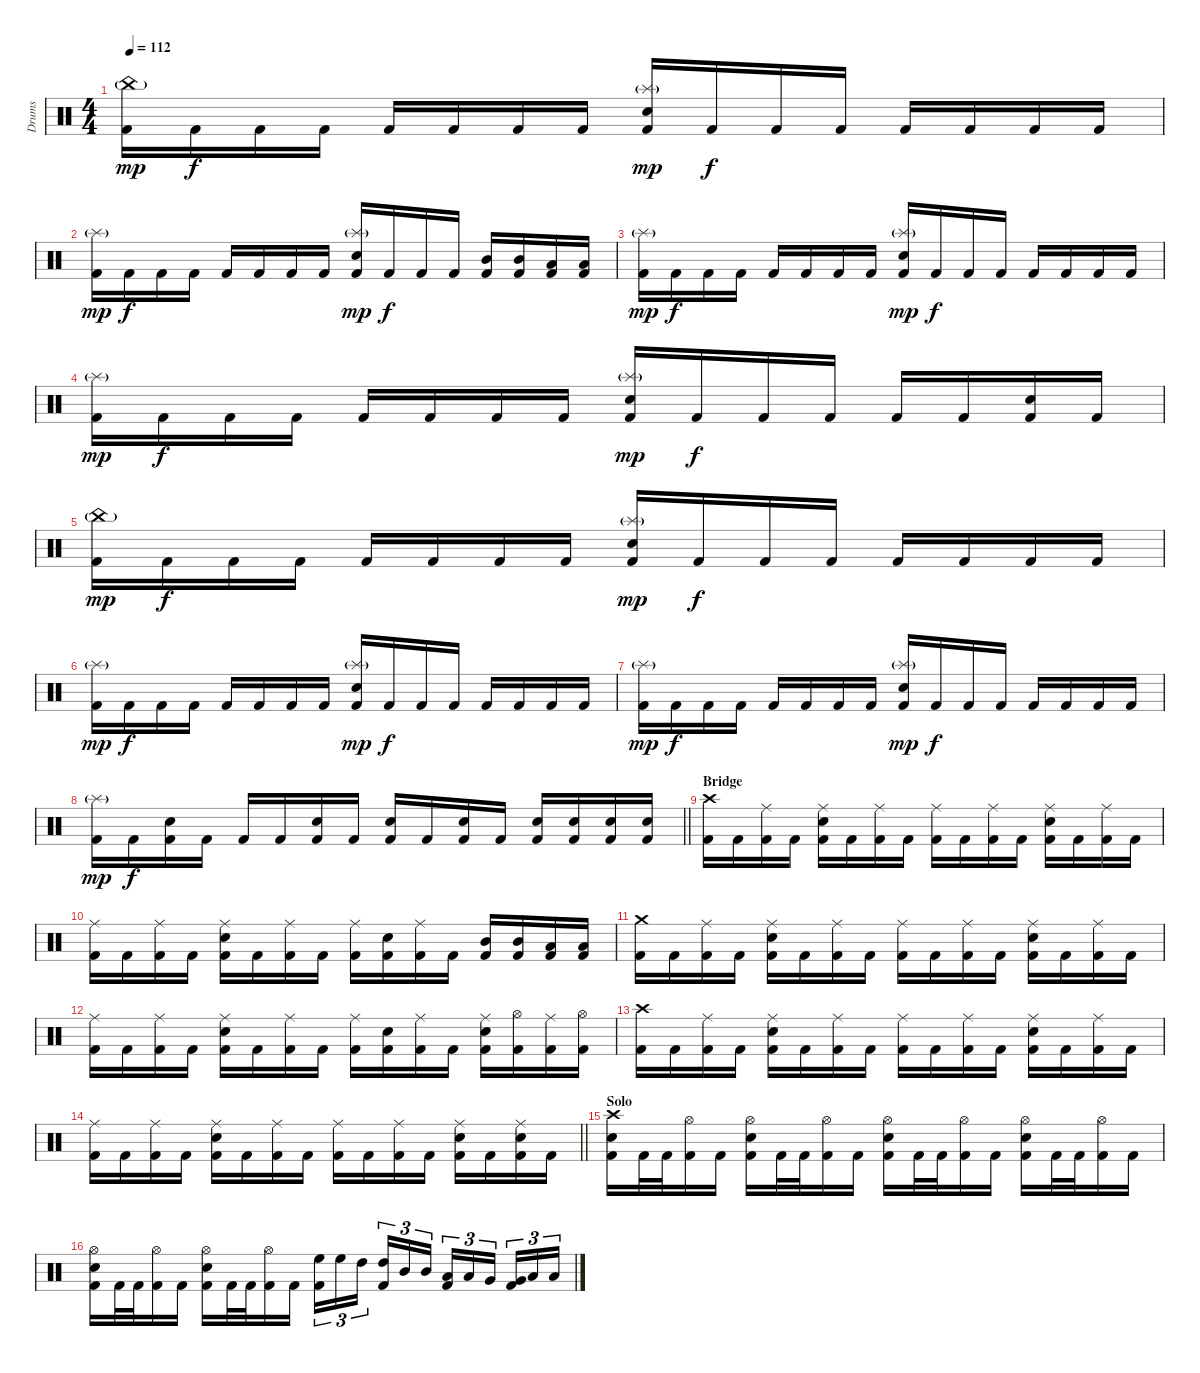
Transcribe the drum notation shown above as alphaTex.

\track ("Drums" "Drums") {instrument percussion}
\staff {score}
\articulation defaults
\ts (4 4)
\tempo 112
\clef neutral
\ks c
("China (hit)"{g} "Kick (hit) 2").16{dy mp} "Kick (hit) 2".16{dy f} "Kick (hit) 2".16 "Kick (hit) 2".16 "Kick (hit) 2".16 "Kick (hit) 2".16 "Kick (hit) 2".16 "Kick (hit) 2".16 ("Splash (hit)"{g} "Electric Snare (hit)" "Kick (hit) 2").16{dy mp} "Kick (hit) 2".16{dy f} "Kick (hit) 2".16 "Kick (hit) 2".16 "Kick (hit) 2".16 "Kick (hit) 2".16 "Kick (hit) 2".16 "Kick (hit) 2".16 |
("Splash (hit)"{g} "Kick (hit) 2").16{dy mp} "Kick (hit) 2".16{dy f} "Kick (hit) 2".16 "Kick (hit) 2".16 "Kick (hit) 2".16 "Kick (hit) 2".16 "Kick (hit) 2".16 "Kick (hit) 2".16 ("Splash (hit)"{g} "Electric Snare (hit)" "Kick (hit) 2").16{dy mp} "Kick (hit) 2".16{dy f} "Kick (hit) 2".16 "Kick (hit) 2".16 ("Mid Tom (hit)" "Kick (hit) 2").16 ("Mid Tom (hit)" "Kick (hit) 2").16 ("Low Tom (hit)" "Kick (hit) 2").16 ("Low Tom (hit)" "Kick (hit) 2").16 |
("Splash (hit)"{g} "Kick (hit) 2").16{dy mp} "Kick (hit) 2".16{dy f} "Kick (hit) 2".16 "Kick (hit) 2".16 "Kick (hit) 2".16 "Kick (hit) 2".16 "Kick (hit) 2".16 "Kick (hit) 2".16 ("Splash (hit)"{g} "Electric Snare (hit)" "Kick (hit) 2").16{dy mp} "Kick (hit) 2".16{dy f} "Kick (hit) 2".16 "Kick (hit) 2".16 "Kick (hit) 2".16 "Kick (hit) 2".16 "Kick (hit) 2".16 "Kick (hit) 2".16 |
("Splash (hit)"{g} "Kick (hit) 2").16{dy mp} "Kick (hit) 2".16{dy f} "Kick (hit) 2".16 "Kick (hit) 2".16 "Kick (hit) 2".16 "Kick (hit) 2".16 "Kick (hit) 2".16 "Kick (hit) 2".16 ("Splash (hit)"{g} "Electric Snare (hit)" "Kick (hit) 2").16{dy mp} "Kick (hit) 2".16{dy f} "Kick (hit) 2".16 "Kick (hit) 2".16 "Kick (hit) 2".16 "Kick (hit) 2".16 ("Electric Snare (hit)" "Kick (hit) 2").16 "Kick (hit) 2".16 |
("China (hit)"{g} "Kick (hit) 2").16{dy mp} "Kick (hit) 2".16{dy f} "Kick (hit) 2".16 "Kick (hit) 2".16 "Kick (hit) 2".16 "Kick (hit) 2".16 "Kick (hit) 2".16 "Kick (hit) 2".16 ("Splash (hit)"{g} "Electric Snare (hit)" "Kick (hit) 2").16{dy mp} "Kick (hit) 2".16{dy f} "Kick (hit) 2".16 "Kick (hit) 2".16 "Kick (hit) 2".16 "Kick (hit) 2".16 "Kick (hit) 2".16 "Kick (hit) 2".16 |
("Splash (hit)"{g} "Kick (hit) 2").16{dy mp} "Kick (hit) 2".16{dy f} "Kick (hit) 2".16 "Kick (hit) 2".16 "Kick (hit) 2".16 "Kick (hit) 2".16 "Kick (hit) 2".16 "Kick (hit) 2".16 ("Splash (hit)"{g} "Electric Snare (hit)" "Kick (hit) 2").16{dy mp} "Kick (hit) 2".16{dy f} "Kick (hit) 2".16 "Kick (hit) 2".16 "Kick (hit) 2".16 "Kick (hit) 2".16 "Kick (hit) 2".16 "Kick (hit) 2".16 |
("Splash (hit)"{g} "Kick (hit) 2").16{dy mp} "Kick (hit) 2".16{dy f} "Kick (hit) 2".16 "Kick (hit) 2".16 "Kick (hit) 2".16 "Kick (hit) 2".16 "Kick (hit) 2".16 "Kick (hit) 2".16 ("Splash (hit)"{g} "Electric Snare (hit)" "Kick (hit) 2").16{dy mp} "Kick (hit) 2".16{dy f} "Kick (hit) 2".16 "Kick (hit) 2".16 "Kick (hit) 2".16 "Kick (hit) 2".16 "Kick (hit) 2".16 "Kick (hit) 2".16 |
\barLineRight lightlight
("Splash (hit)"{g} "Kick (hit) 2").16{dy mp} "Kick (hit) 2".16{dy f} ("Electric Snare (hit)" "Kick (hit) 2").16 "Kick (hit) 2".16 "Kick (hit) 2".16 "Kick (hit) 2".16 ("Electric Snare (hit)" "Kick (hit) 2").16 "Kick (hit) 2".16 ("Electric Snare (hit)" "Kick (hit) 2").16 "Kick (hit) 2".16 ("Electric Snare (hit)" "Kick (hit) 2").16 "Kick (hit) 2".16 ("Electric Snare (hit)" "Kick (hit) 2").16 ("Electric Snare (hit)" "Kick (hit) 2").16 ("Electric Snare (hit)" "Kick (hit) 2").16 ("Electric Snare (hit)" "Kick (hit) 2").16 |
\section ("" "Bridge")
("Crash high (hit)" "Kick (hit) 2").16 "Kick (hit) 2".16 ("Ride (middle)" "Kick (hit) 2").16 "Kick (hit) 2".16 ("Ride (middle)" "Electric Snare (hit)" "Kick (hit) 2").16 "Kick (hit) 2".16 ("Ride (middle)" "Kick (hit) 2").16 "Kick (hit) 2".16 ("Ride (middle)" "Kick (hit) 2").16 "Kick (hit) 2".16 ("Ride (middle)" "Kick (hit) 2").16 "Kick (hit) 2".16 ("Ride (middle)" "Electric Snare (hit)" "Kick (hit) 2").16 "Kick (hit) 2".16 ("Ride (middle)" "Kick (hit) 2").16 "Kick (hit) 2".16 |
("Ride (middle)" "Kick (hit) 2").16 "Kick (hit) 2".16 ("Ride (middle)" "Kick (hit) 2").16 "Kick (hit) 2".16 ("Ride (middle)" "Electric Snare (hit)" "Kick (hit) 2").16 "Kick (hit) 2".16 ("Ride (middle)" "Kick (hit) 2").16 "Kick (hit) 2".16 ("Ride (middle)" "Kick (hit) 2").16 ("Electric Snare (hit)" "Kick (hit) 2").16 ("Ride (middle)" "Kick (hit) 2").16 "Kick (hit) 2".16 ("Mid Tom (hit)" "Kick (hit) 2").16 ("Mid Tom (hit)" "Kick (hit) 2").16 ("Low Tom (hit)" "Kick (hit) 2").16 ("Low Tom (hit)" "Kick (hit) 2").16 |
("Crash medium (hit)" "Kick (hit) 2").16 "Kick (hit) 2".16 ("Ride (middle)" "Kick (hit) 2").16 "Kick (hit) 2".16 ("Ride (middle)" "Electric Snare (hit)" "Kick (hit) 2").16 "Kick (hit) 2".16 ("Ride (middle)" "Kick (hit) 2").16 "Kick (hit) 2".16 ("Ride (middle)" "Kick (hit) 2").16 "Kick (hit) 2".16 ("Ride (middle)" "Kick (hit) 2").16 "Kick (hit) 2".16 ("Ride (middle)" "Electric Snare (hit)" "Kick (hit) 2").16 "Kick (hit) 2".16 ("Ride (middle)" "Kick (hit) 2").16 "Kick (hit) 2".16 |
("Ride (middle)" "Kick (hit) 2").16 "Kick (hit) 2".16 ("Ride (middle)" "Kick (hit) 2").16 "Kick (hit) 2".16 ("Ride (middle)" "Electric Snare (hit)" "Kick (hit) 2").16 "Kick (hit) 2".16 ("Ride (middle)" "Kick (hit) 2").16 "Kick (hit) 2".16 ("Ride (middle)" "Kick (hit) 2").16 ("Electric Snare (hit)" "Kick (hit) 2").16 ("Ride (middle)" "Kick (hit) 2").16 "Kick (hit) 2".16 ("Ride (middle)" "Electric Snare (hit)" "Kick (hit) 2").16 ("Hi-Hat (open)" "Kick (hit) 2").16 ("Ride (middle)" "Kick (hit) 2").16 ("Hi-Hat (open)" "Kick (hit) 2").16 |
("Crash high (hit)" "Kick (hit) 2").16 "Kick (hit) 2".16 ("Ride (middle)" "Kick (hit) 2").16 "Kick (hit) 2".16 ("Ride (middle)" "Electric Snare (hit)" "Kick (hit) 2").16 "Kick (hit) 2".16 ("Ride (middle)" "Kick (hit) 2").16 "Kick (hit) 2".16 ("Ride (middle)" "Kick (hit) 2").16 "Kick (hit) 2".16 ("Ride (middle)" "Kick (hit) 2").16 "Kick (hit) 2".16 ("Ride (middle)" "Electric Snare (hit)" "Kick (hit) 2").16 "Kick (hit) 2".16 ("Ride (middle)" "Kick (hit) 2").16 "Kick (hit) 2".16 |
\barLineRight lightlight
("Ride (middle)" "Kick (hit) 2").16 "Kick (hit) 2".16 ("Ride (middle)" "Kick (hit) 2").16 "Kick (hit) 2".16 ("Ride (middle)" "Electric Snare (hit)" "Kick (hit) 2").16 "Kick (hit) 2".16 ("Ride (middle)" "Kick (hit) 2").16 "Kick (hit) 2".16 ("Ride (middle)" "Kick (hit) 2").16 "Kick (hit) 2".16 ("Ride (middle)" "Kick (hit) 2").16 "Kick (hit) 2".16 ("Ride (middle)" "Electric Snare (hit)" "Kick (hit) 2").16 "Kick (hit) 2".16 ("Ride (middle)" "Electric Snare (hit)" "Kick (hit) 2").16 "Kick (hit) 2".16 |
\section ("" "Solo")
("Crash high (hit)" "Electric Snare (hit)" "Kick (hit) 2").16 "Kick (hit) 2".32 "Kick (hit) 2".32 ("Hi-Hat (open)" "Kick (hit) 2").16 "Kick (hit) 2".16 ("Hi-Hat (open)" "Electric Snare (hit)" "Kick (hit) 2").16 "Kick (hit) 2".32 "Kick (hit) 2".32 ("Hi-Hat (open)" "Kick (hit) 2").16 "Kick (hit) 2".16 ("Hi-Hat (open)" "Electric Snare (hit)" "Kick (hit) 2").16 "Kick (hit) 2".32 "Kick (hit) 2".32 ("Hi-Hat (open)" "Kick (hit) 2").16 "Kick (hit) 2".16 ("Hi-Hat (open)" "Electric Snare (hit)" "Kick (hit) 2").16 "Kick (hit) 2".32 "Kick (hit) 2".32 ("Hi-Hat (open)" "Kick (hit) 2").16 "Kick (hit) 2".16 |
("Hi-Hat (open)" "Electric Snare (hit)" "Kick (hit) 2").16 "Kick (hit) 2".32 "Kick (hit) 2".32 ("Hi-Hat (open)" "Kick (hit) 2").16 "Kick (hit) 2".16 ("Hi-Hat (open)" "Electric Snare (hit)" "Kick (hit) 2").16 "Kick (hit) 2".32 "Kick (hit) 2".32 ("Hi-Hat (open)" "Kick (hit) 2").16 "Kick (hit) 2".16 ("High Floor Tom (hit)" "Kick (hit) 2").16{tu (3 2)} "High Floor Tom (hit)".16{tu (3 2)} "High Tom (hit)".16{tu (3 2) beam splitsecondary} ("High Tom (hit)" "Kick (hit) 2").16{tu (3 2)} "Mid Tom (hit)".16{tu (3 2)} "Mid Tom (hit)".16{tu (3 2)} ("Low Tom (hit)" "Kick (hit) 2").16{tu (3 2)} "Low Tom (hit)".16{tu (3 2)} "Very Low Tom (hit)".16{tu (3 2) beam splitsecondary} ("Very Low Tom (hit)" "Kick (hit) 2").16{tu (3 2)} "Low Floor Tom (hit)".16{tu (3 2)} "Low Floor Tom (hit)".16{tu (3 2)}
